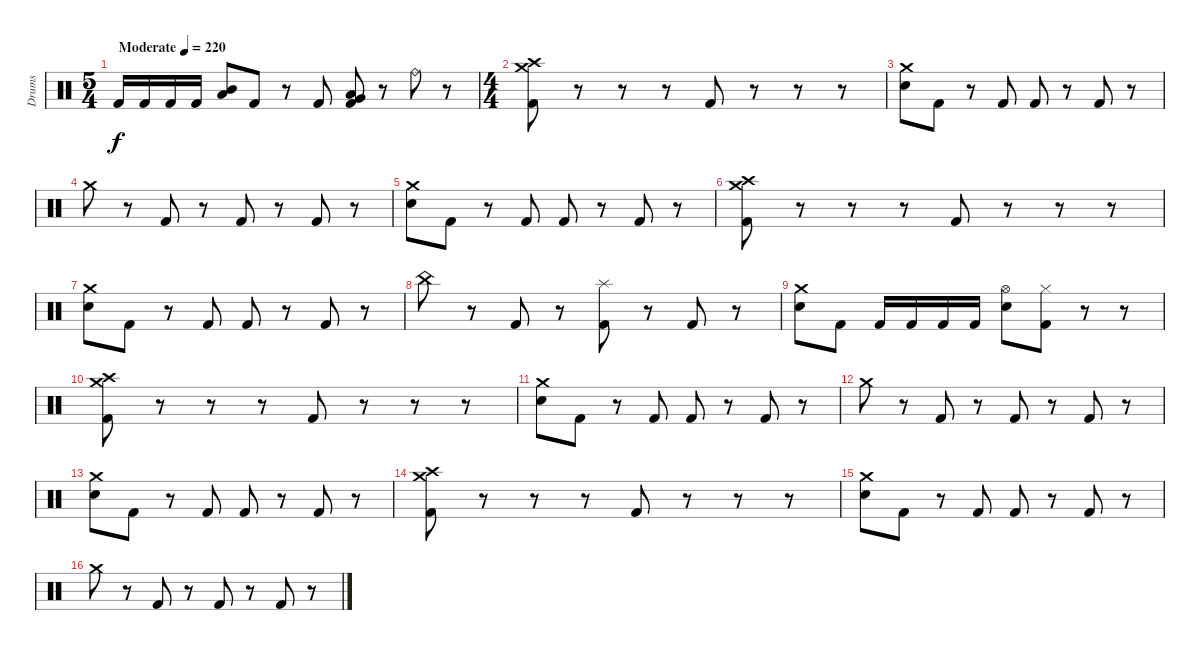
\track ("Drums" "Drums") {instrument percussion}
\staff
\articulation defaults
\ts (5 4)
\tempo (220 "Moderate")
\clef neutral
\ks c "Kick (hit) 2".16{dy f} "Kick (hit) 2".16 "Kick (hit) 2".16 "Kick (hit) 2".16
("Mid Tom (hit)" "Low Tom (hit)").8 "Kick (hit) 2".8 r.8 "Kick (hit) 2".8 ("Low Floor Tom (hit)" "Very Low Tom (hit)" "Kick (hit) 2").8 r.8 "Ride (bell)".8 r.8 |
\ts (4 4)
("Crash medium (hit)" "Crash high (hit)" "Kick (hit) 2").8 r.8 r.8 r.8 "Kick (hit) 2".8 r.8 r.8 r.8 |
("Crash medium (hit)" "Electric Snare (hit)").8 "Kick (hit) 2".8 r.8 "Kick (hit) 2".8 "Kick (hit) 2".8 r.8 "Kick (hit) 2".8 r.8 |
"Crash medium (hit)".8 r.8 "Kick (hit) 2".8 r.8 "Kick (hit) 2".8 r.8 "Kick (hit) 2".8 r.8 |
("Crash medium (hit)" "Electric Snare (hit)").8 "Kick (hit) 2".8 r.8 "Kick (hit) 2".8 "Kick (hit) 2".8 r.8 "Kick (hit) 2".8 r.8 |
("Crash medium (hit)" "Crash high (hit)" "Kick (hit) 2").8 r.8 r.8 r.8 "Kick (hit) 2".8 r.8 r.8 r.8 |
("Crash medium (hit)" "Electric Snare (hit)").8 "Kick (hit) 2".8 r.8 "Kick (hit) 2".8 "Kick (hit) 2".8 r.8 "Kick (hit) 2".8 r.8 |
"China (hit)".8 r.8 "Kick (hit) 2".8 r.8 ("Splash (hit)" "Kick (hit) 2").8 r.8 "Kick (hit) 2".8 r.8 |
("Crash medium (hit)" "Electric Snare (hit)").8 "Kick (hit) 2".8 "Kick (hit) 2".16 "Kick (hit) 2".16 "Kick (hit) 2".16 "Kick (hit) 2".16 ("Hi-Hat (open)" "Electric Snare (hit)").8 ("Hi-Hat (closed)" "Kick (hit) 2").8 r.8 r.8 |
("Crash medium (hit)" "Crash high (hit)" "Kick (hit) 2").8 r.8 r.8 r.8 "Kick (hit) 2".8 r.8 r.8 r.8 |
("Crash medium (hit)" "Electric Snare (hit)").8 "Kick (hit) 2".8 r.8 "Kick (hit) 2".8 "Kick (hit) 2".8 r.8 "Kick (hit) 2".8 r.8 |
"Crash medium (hit)".8 r.8 "Kick (hit) 2".8 r.8 "Kick (hit) 2".8 r.8 "Kick (hit) 2".8 r.8 |
("Crash medium (hit)" "Electric Snare (hit)").8 "Kick (hit) 2".8 r.8 "Kick (hit) 2".8 "Kick (hit) 2".8 r.8 "Kick (hit) 2".8 r.8 |
("Crash medium (hit)" "Crash high (hit)" "Kick (hit) 2").8 r.8 r.8 r.8 "Kick (hit) 2".8 r.8 r.8 r.8 |
("Crash medium (hit)" "Electric Snare (hit)").8 "Kick (hit) 2".8 r.8 "Kick (hit) 2".8 "Kick (hit) 2".8 r.8 "Kick (hit) 2".8 r.8 |
"Crash medium (hit)".8 r.8 "Kick (hit) 2".8 r.8 "Kick (hit) 2".8 r.8 "Kick (hit) 2".8 r.8
